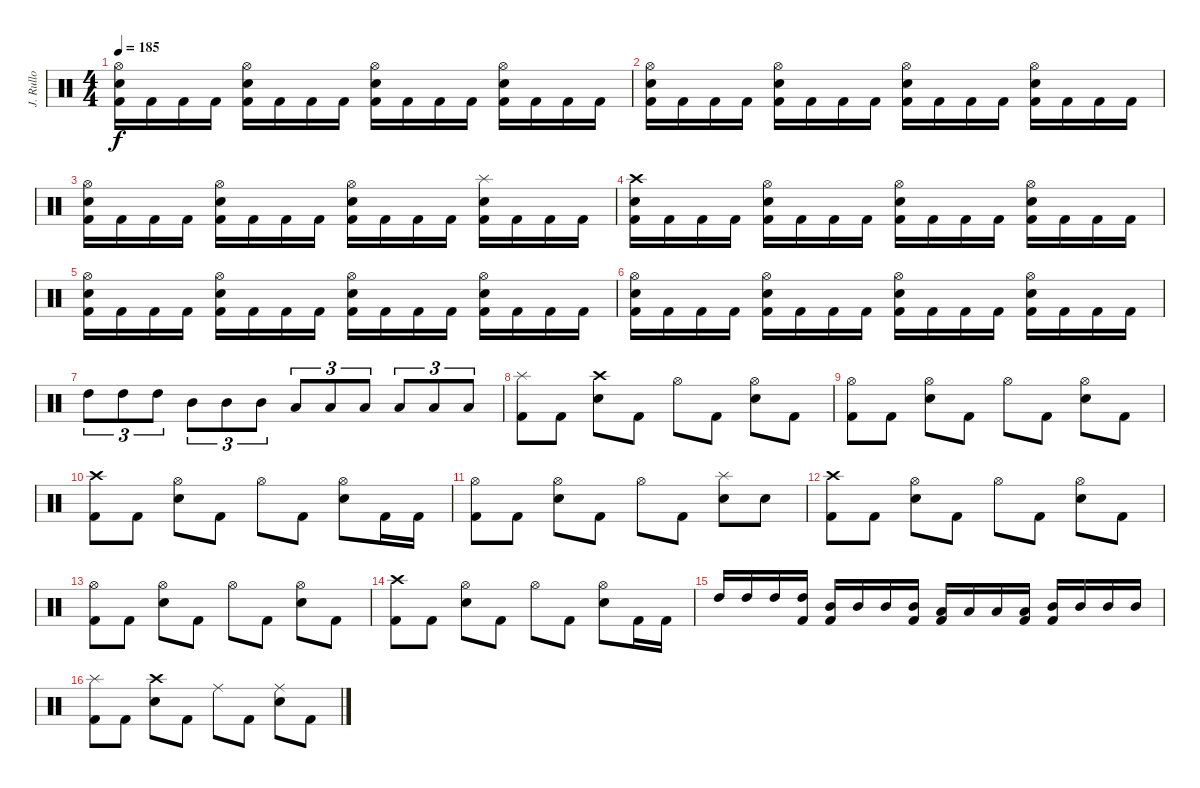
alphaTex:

\track ("J. Rullo" "J. Rullo") {instrument percussion}
\staff {score}
\articulation defaults
\ts (4 4)
\tempo 185
\clef neutral
\ks c
("Hi-Hat (open)" "Snare (hit) 2" "Kick (hit) 2").16{dy f} "Kick (hit) 2".16 "Kick (hit) 2".16 "Kick (hit) 2".16 ("Hi-Hat (open)" "Snare (hit) 2" "Kick (hit) 2").16 "Kick (hit) 2".16 "Kick (hit) 2".16 "Kick (hit) 2".16 ("Hi-Hat (open)" "Snare (hit) 2" "Kick (hit) 2").16 "Kick (hit) 2".16 "Kick (hit) 2".16 "Kick (hit) 2".16 ("Hi-Hat (open)" "Snare (hit) 2" "Kick (hit) 2").16 "Kick (hit) 2".16 "Kick (hit) 2".16 "Kick (hit) 2".16 |
("Hi-Hat (open)" "Snare (hit) 2" "Kick (hit) 2").16 "Kick (hit) 2".16 "Kick (hit) 2".16 "Kick (hit) 2".16 ("Hi-Hat (open)" "Snare (hit) 2" "Kick (hit) 2").16 "Kick (hit) 2".16 "Kick (hit) 2".16 "Kick (hit) 2".16 ("Hi-Hat (open)" "Snare (hit) 2" "Kick (hit) 2").16 "Kick (hit) 2".16 "Kick (hit) 2".16 "Kick (hit) 2".16 ("Hi-Hat (open)" "Snare (hit) 2" "Kick (hit) 2").16 "Kick (hit) 2".16 "Kick (hit) 2".16 "Kick (hit) 2".16 |
("Hi-Hat (open)" "Snare (hit) 2" "Kick (hit) 2").16 "Kick (hit) 2".16 "Kick (hit) 2".16 "Kick (hit) 2".16 ("Hi-Hat (open)" "Snare (hit) 2" "Kick (hit) 2").16 "Kick (hit) 2".16 "Kick (hit) 2".16 "Kick (hit) 2".16 ("Hi-Hat (open)" "Snare (hit) 2" "Kick (hit) 2").16 "Kick (hit) 2".16 "Kick (hit) 2".16 "Kick (hit) 2".16 ("Splash (hit)" "Snare (hit) 2" "Kick (hit) 2").16 "Kick (hit) 2".16 "Kick (hit) 2".16 "Kick (hit) 2".16 |
("Crash high (hit)" "Snare (hit) 2" "Kick (hit) 2").16 "Kick (hit) 2".16 "Kick (hit) 2".16 "Kick (hit) 2".16 ("Hi-Hat (open)" "Snare (hit) 2" "Kick (hit) 2").16 "Kick (hit) 2".16 "Kick (hit) 2".16 "Kick (hit) 2".16 ("Hi-Hat (open)" "Snare (hit) 2" "Kick (hit) 2").16 "Kick (hit) 2".16 "Kick (hit) 2".16 "Kick (hit) 2".16 ("Hi-Hat (open)" "Snare (hit) 2" "Kick (hit) 2").16 "Kick (hit) 2".16 "Kick (hit) 2".16 "Kick (hit) 2".16 |
("Hi-Hat (open)" "Snare (hit) 2" "Kick (hit) 2").16 "Kick (hit) 2".16 "Kick (hit) 2".16 "Kick (hit) 2".16 ("Hi-Hat (open)" "Snare (hit) 2" "Kick (hit) 2").16 "Kick (hit) 2".16 "Kick (hit) 2".16 "Kick (hit) 2".16 ("Hi-Hat (open)" "Snare (hit) 2" "Kick (hit) 2").16 "Kick (hit) 2".16 "Kick (hit) 2".16 "Kick (hit) 2".16 ("Hi-Hat (open)" "Snare (hit) 2" "Kick (hit) 2").16 "Kick (hit) 2".16 "Kick (hit) 2".16 "Kick (hit) 2".16 |
("Hi-Hat (open)" "Snare (hit) 2" "Kick (hit) 2").16 "Kick (hit) 2".16 "Kick (hit) 2".16 "Kick (hit) 2".16 ("Hi-Hat (open)" "Snare (hit) 2" "Kick (hit) 2").16 "Kick (hit) 2".16 "Kick (hit) 2".16 "Kick (hit) 2".16 ("Hi-Hat (open)" "Snare (hit) 2" "Kick (hit) 2").16 "Kick (hit) 2".16 "Kick (hit) 2".16 "Kick (hit) 2".16 ("Hi-Hat (open)" "Snare (hit) 2" "Kick (hit) 2").16 "Kick (hit) 2".16 "Kick (hit) 2".16 "Kick (hit) 2".16 |
"High Tom (hit)".8{tu (3 2)} "High Tom (hit)".8{tu (3 2)} "High Tom (hit)".8{tu (3 2)} "Mid Tom (hit)".8{tu (3 2)} "Mid Tom (hit)".8{tu (3 2)} "Mid Tom (hit)".8{tu (3 2)} "Low Tom (hit)".8{tu (3 2)} "Low Tom (hit)".8{tu (3 2)} "Low Tom (hit)".8{tu (3 2)} "Low Floor Tom (hit)".8{tu (3 2)} "Low Floor Tom (hit)".8{tu (3 2)} "Low Floor Tom (hit)".8{tu (3 2)} |
("Splash (hit)" "Kick (hit) 2").8 "Kick (hit) 2".8 ("Crash high (hit)" "Snare (hit) 2").8 "Kick (hit) 2".8 "Hi-Hat (open)".8 "Kick (hit) 2".8 ("Hi-Hat (open)" "Snare (hit) 2").8 "Kick (hit) 2".8 |
("Hi-Hat (open)" "Kick (hit) 2").8 "Kick (hit) 2".8 ("Hi-Hat (open)" "Snare (hit) 2").8 "Kick (hit) 2".8 "Hi-Hat (open)".8 "Kick (hit) 2".8 ("Hi-Hat (open)" "Snare (hit) 2").8 "Kick (hit) 2".8 |
("Crash high (hit)" "Kick (hit) 2").8 "Kick (hit) 2".8 ("Hi-Hat (open)" "Snare (hit) 2").8 "Kick (hit) 2".8 "Hi-Hat (open)".8 "Kick (hit) 2".8 ("Hi-Hat (open)" "Snare (hit) 2").8 "Kick (hit) 2".16 "Kick (hit) 2".16 |
("Hi-Hat (open)" "Kick (hit) 2").8 "Kick (hit) 2".8 ("Hi-Hat (open)" "Snare (hit) 2").8 "Kick (hit) 2".8 "Hi-Hat (open)".8 "Kick (hit) 2".8 ("Splash (hit)" "Snare (hit) 2").8 "Snare (hit) 2".8 |
("Crash high (hit)" "Kick (hit) 2").8 "Kick (hit) 2".8 ("Hi-Hat (open)" "Snare (hit) 2").8 "Kick (hit) 2".8 "Hi-Hat (open)".8 "Kick (hit) 2".8 ("Hi-Hat (open)" "Snare (hit) 2").8 "Kick (hit) 2".8 |
("Hi-Hat (open)" "Kick (hit) 2").8 "Kick (hit) 2".8 ("Hi-Hat (open)" "Snare (hit) 2").8 "Kick (hit) 2".8 "Hi-Hat (open)".8 "Kick (hit) 2".8 ("Hi-Hat (open)" "Snare (hit) 2").8 "Kick (hit) 2".8 |
("Crash high (hit)" "Kick (hit) 2").8 "Kick (hit) 2".8 ("Hi-Hat (open)" "Snare (hit) 2").8 "Kick (hit) 2".8 "Hi-Hat (open)".8 "Kick (hit) 2".8 ("Hi-Hat (open)" "Snare (hit) 2").8 "Kick (hit) 2".16 "Kick (hit) 2".16 |
"High Tom (hit)".16 "High Tom (hit)".16 "High Tom (hit)".16 ("High Tom (hit)" "Kick (hit) 2").16 ("Mid Tom (hit)" "Kick (hit) 2").16 "Mid Tom (hit)".16 "Mid Tom (hit)".16 ("Mid Tom (hit)" "Kick (hit) 2").16 ("Low Tom (hit)" "Kick (hit) 2").16 "Low Tom (hit)".16 "Low Tom (hit)".16 ("Low Tom (hit)" "Kick (hit) 2").16 ("Mid Tom (hit)" "Kick (hit) 2").16 "Mid Tom (hit)".16 "Mid Tom (hit)".16 "Mid Tom (hit)".16 |
("Splash (hit)" "Kick (hit) 2").8 "Kick (hit) 2".8 ("Crash high (hit)" "Snare (hit) 2").8 "Kick (hit) 2".8 "Ride (middle)".8 "Kick (hit) 2".8 ("Ride (middle)" "Snare (hit) 2").8 "Kick (hit) 2".8
